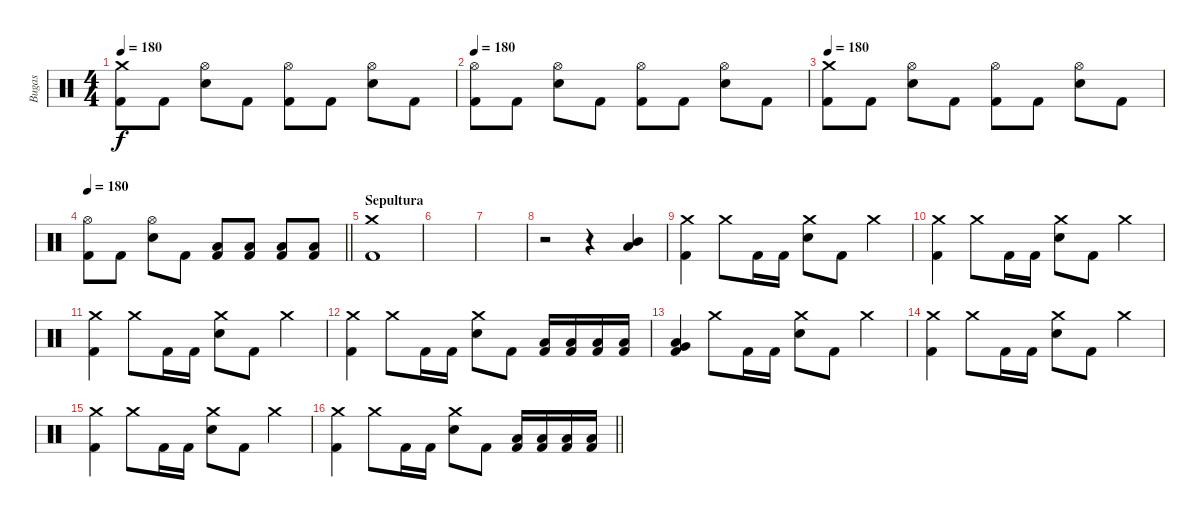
\track ("Bugas" "Bugas") {instrument percussion}
\staff {score}
\articulation defaults
\ts (4 4)
\tempo 180
\clef neutral
\ks c
("Crash medium (hit)" "Kick (hit) 2").8{dy f} "Kick (hit) 2".8 ("Hi-Hat (open)" "Electric Snare (hit)").8 "Kick (hit) 2".8 ("Hi-Hat (open)" "Kick (hit) 2").8 "Kick (hit) 2".8 ("Hi-Hat (open)" "Electric Snare (hit)").8 "Kick (hit) 2".8 |
\tempo 180
("Hi-Hat (open)" "Kick (hit) 2").8 "Kick (hit) 2".8 ("Hi-Hat (open)" "Electric Snare (hit)").8 "Kick (hit) 2".8 ("Hi-Hat (open)" "Kick (hit) 2").8 "Kick (hit) 2".8 ("Hi-Hat (open)" "Electric Snare (hit)").8 "Kick (hit) 2".8 |
\tempo 180
("Crash medium (hit)" "Kick (hit) 2").8 "Kick (hit) 2".8 ("Hi-Hat (open)" "Electric Snare (hit)").8 "Kick (hit) 2".8 ("Hi-Hat (open)" "Kick (hit) 2").8 "Kick (hit) 2".8 ("Hi-Hat (open)" "Electric Snare (hit)").8 "Kick (hit) 2".8 |
\tempo 180
\barLineRight lightlight
("Hi-Hat (open)" "Kick (hit) 2").8 "Kick (hit) 2".8 ("Hi-Hat (open)" "Electric Snare (hit)").8 "Kick (hit) 2".8 ("Low Tom (hit)" "Kick (hit) 2").8 ("Low Tom (hit)" "Kick (hit) 2").8 ("Low Tom (hit)" "Kick (hit) 2").8 ("Low Tom (hit)" "Kick (hit) 2").8 |
\section ("" "Sepultura")
("Crash medium (hit)" "Kick (hit) 2").1 |
|
|
r.2 r.4 ("Low Tom (hit)" "Mid Tom (hit)").4 |
("Crash medium (hit)" "Kick (hit) 2").4 "Crash medium (hit)".8 "Kick (hit) 2".16 "Kick (hit) 2".16 ("Crash medium (hit)" "Electric Snare (hit)").8 "Kick (hit) 2".8 "Crash medium (hit)".4 |
("Crash medium (hit)" "Kick (hit) 2").4 "Crash medium (hit)".8 "Kick (hit) 2".16 "Kick (hit) 2".16 ("Crash medium (hit)" "Electric Snare (hit)").8 "Kick (hit) 2".8 "Crash medium (hit)".4 |
("Crash medium (hit)" "Kick (hit) 2").4 "Crash medium (hit)".8 "Kick (hit) 2".16 "Kick (hit) 2".16 ("Crash medium (hit)" "Electric Snare (hit)").8 "Kick (hit) 2".8 "Crash medium (hit)".4 |
("Crash medium (hit)" "Kick (hit) 2").4 "Crash medium (hit)".8 "Kick (hit) 2".16 "Kick (hit) 2".16 ("Crash medium (hit)" "Electric Snare (hit)").8 "Kick (hit) 2".8 ("Kick (hit) 2" "Low Tom (hit)").16 ("Kick (hit) 2" "Low Tom (hit)").16 ("Kick (hit) 2" "Low Tom (hit)").16 ("Kick (hit) 2" "Low Tom (hit)").16 |
("Very Low Tom (hit)" "Kick (hit) 2" "Low Tom (hit)").4 "Crash medium (hit)".8 "Kick (hit) 2".16 "Kick (hit) 2".16 ("Crash medium (hit)" "Electric Snare (hit)").8 "Kick (hit) 2".8 "Crash medium (hit)".4 |
("Crash medium (hit)" "Kick (hit) 2").4 "Crash medium (hit)".8 "Kick (hit) 2".16 "Kick (hit) 2".16 ("Crash medium (hit)" "Electric Snare (hit)").8 "Kick (hit) 2".8 "Crash medium (hit)".4 |
("Crash medium (hit)" "Kick (hit) 2").4 "Crash medium (hit)".8 "Kick (hit) 2".16 "Kick (hit) 2".16 ("Crash medium (hit)" "Electric Snare (hit)").8 "Kick (hit) 2".8 "Crash medium (hit)".4 |
\barLineRight lightlight
("Crash medium (hit)" "Kick (hit) 2").4 "Crash medium (hit)".8 "Kick (hit) 2".16 "Kick (hit) 2".16 ("Crash medium (hit)" "Electric Snare (hit)").8 "Kick (hit) 2".8 ("Kick (hit) 2" "Low Tom (hit)").16 ("Kick (hit) 2" "Low Tom (hit)").16 ("Kick (hit) 2" "Low Tom (hit)").16 ("Kick (hit) 2" "Low Tom (hit)").16
